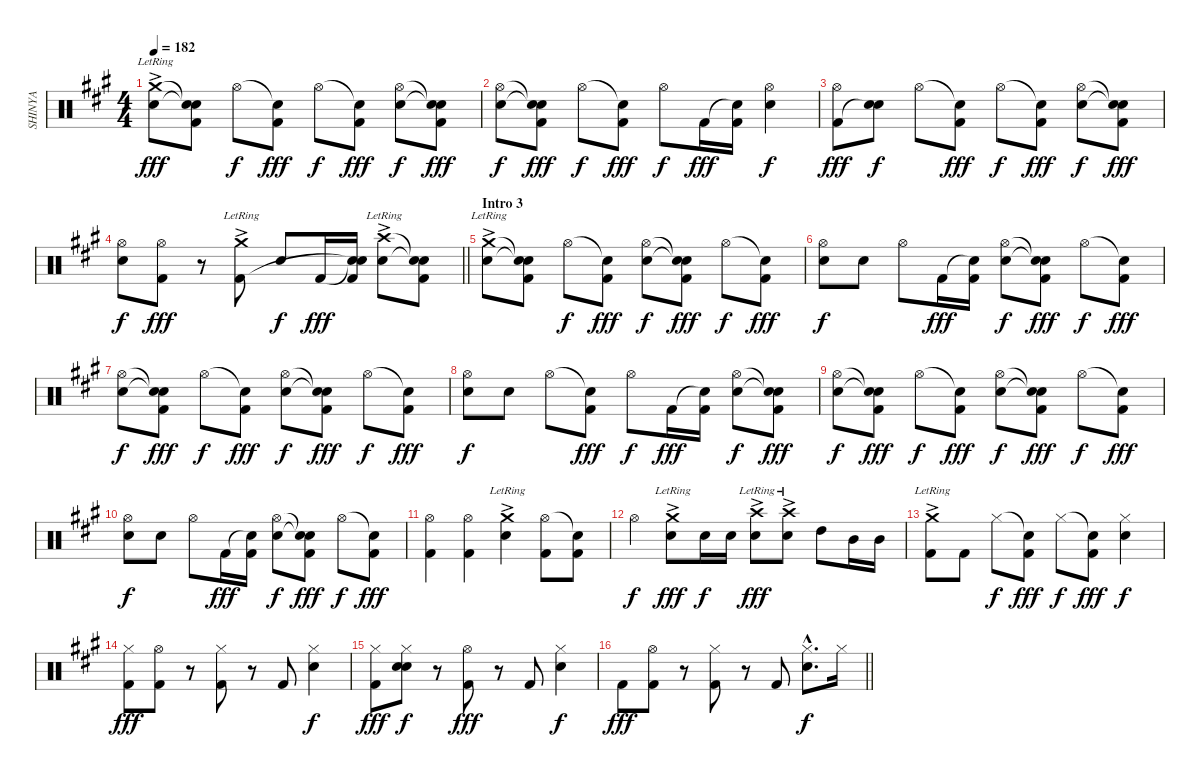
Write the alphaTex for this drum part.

\track ("SHINYA" "SHINYA") {instrument percussion}
\staff {score}
\articulation defaults
\ts (4 4)
\tempo 182
\clef neutral
\ks a
("Crash medium (hit)"{ac lr} "Electric Snare (hit)").8{dy fff} ("Snare (hit)"{t} "Snare (hit)"{t} "Kick (hit) 2").8 "Hi-Hat (open)".8{dy f} ("Snare (hit)"{t} "Kick (hit) 2").8{dy fff} "Hi-Hat (open)".8{dy f} ("Snare (hit)"{t} "Kick (hit) 2").8{dy fff} ("Hi-Hat (open)" "Electric Snare (hit)").8{dy f} ("Snare (hit)"{t} "Snare (hit)"{t} "Kick (hit) 2").8{dy fff} |
("Hi-Hat (open)" "Electric Snare (hit)").8{dy f} ("Snare (hit)"{t} "Snare (hit)"{t} "Kick (hit) 2").8{dy fff} "Hi-Hat (open)".8{dy f} ("Snare (hit)"{t} "Kick (hit) 2").8{dy fff} "Hi-Hat (open)".8{dy f} "Kick (hit) 2".16{dy fff} ("Snare (hit)"{t} "Kick (hit) 2").16 ("Hi-Hat (open)" "Electric Snare (hit)").4{dy f} |
("Hi-Hat (open)" "Kick (hit) 2").8{dy fff} ("Electric Snare (hit)" "Snare (hit)"{t}).8{dy f} "Hi-Hat (open)".8 ("Snare (hit)"{t} "Kick (hit) 2").8{dy fff} "Hi-Hat (open)".8{dy f} ("Snare (hit)"{t} "Kick (hit) 2").8{dy fff} ("Hi-Hat (open)" "Electric Snare (hit)").8{dy f} ("Snare (hit)"{t} "Snare (hit)"{t} "Kick (hit) 2").8{dy fff} |
\barLineRight lightlight
("Hi-Hat (open)" "Electric Snare (hit)").8{dy f} ("Hi-Hat (open)" "Kick (hit) 2").8{dy fff} r.8 ("Crash medium (hit)"{ac lr} "Kick (hit) 2").8 "Electric Snare (hit)".8{dy f} "Kick (hit) 2".16{dy fff} ("Snare (hit)"{t} "Snare (hit)"{t} "Kick (hit) 2").16 ("Crash high (hit)"{ac lr} "Electric Snare (hit)").8 ("Snare (hit)"{t} "Snare (hit)"{t} "Kick (hit) 2").8 |
\section ("" "Intro 3")
("Crash medium (hit)"{ac lr} "Electric Snare (hit)").8 ("Snare (hit)"{t} "Snare (hit)"{t} "Kick (hit) 2").8 "Hi-Hat (open)".8{dy f} ("Snare (hit)"{t} "Kick (hit) 2").8{dy fff} ("Hi-Hat (open)" "Electric Snare (hit)").8{dy f} ("Snare (hit)"{t} "Snare (hit)"{t} "Kick (hit) 2").8{dy fff} "Hi-Hat (open)".8{dy f} ("Snare (hit)"{t} "Kick (hit) 2").8{dy fff} |
("Hi-Hat (open)" "Electric Snare (hit)").8{dy f} "Electric Snare (hit)".8 "Hi-Hat (open)".8 "Kick (hit) 2".16{dy fff} ("Snare (hit)"{t} "Kick (hit) 2").16 ("Hi-Hat (open)" "Electric Snare (hit)").8{dy f} ("Snare (hit)"{t} "Snare (hit)"{t} "Kick (hit) 2").8{dy fff} "Hi-Hat (open)".8{dy f} ("Snare (hit)"{t} "Kick (hit) 2").8{dy fff} |
("Hi-Hat (open)" "Electric Snare (hit)").8{dy f} ("Snare (hit)"{t} "Snare (hit)"{t} "Kick (hit) 2").8{dy fff} "Hi-Hat (open)".8{dy f} ("Snare (hit)"{t} "Kick (hit) 2").8{dy fff} ("Hi-Hat (open)" "Electric Snare (hit)").8{dy f} ("Snare (hit)"{t} "Snare (hit)"{t} "Kick (hit) 2").8{dy fff} "Hi-Hat (open)".8{dy f} ("Snare (hit)"{t} "Kick (hit) 2").8{dy fff} |
("Hi-Hat (open)" "Electric Snare (hit)").8{dy f} "Electric Snare (hit)".8 "Hi-Hat (open)".8 ("Snare (hit)"{t} "Kick (hit) 2").8{dy fff} "Hi-Hat (open)".8{dy f} "Kick (hit) 2".16{dy fff} ("Snare (hit)"{t} "Kick (hit) 2").16 ("Hi-Hat (open)" "Electric Snare (hit)").8{dy f} ("Snare (hit)"{t} "Snare (hit)"{t} "Kick (hit) 2").8{dy fff} |
("Hi-Hat (open)" "Electric Snare (hit)").8{dy f} ("Snare (hit)"{t} "Snare (hit)"{t} "Kick (hit) 2").8{dy fff} "Hi-Hat (open)".8{dy f} ("Snare (hit)"{t} "Kick (hit) 2").8{dy fff} ("Hi-Hat (open)" "Electric Snare (hit)").8{dy f} ("Snare (hit)"{t} "Snare (hit)"{t} "Kick (hit) 2").8{dy fff} "Hi-Hat (open)".8{dy f} ("Snare (hit)"{t} "Kick (hit) 2").8{dy fff} |
("Hi-Hat (open)" "Electric Snare (hit)").8{dy f} "Electric Snare (hit)".8 "Hi-Hat (open)".8 "Kick (hit) 2".16{dy fff} ("Snare (hit)"{t} "Kick (hit) 2").16 ("Hi-Hat (open)" "Electric Snare (hit)").8{dy f} ("Snare (hit)"{t} "Snare (hit)"{t} "Kick (hit) 2").8{dy fff} "Hi-Hat (open)".8{dy f} ("Snare (hit)"{t} "Kick (hit) 2").8{dy fff} |
("Hi-Hat (open)" "Kick (hit) 2").4 ("Hi-Hat (open)" "Kick (hit) 2").4 ("Crash medium (hit)"{ac lr} "Electric Snare (hit)").4 ("Hi-Hat (open)" "Kick (hit) 2").8 ("Snare (hit)"{t} "Kick (hit) 2").8 |
"Hi-Hat (open)".4{dy f} ("Crash medium (hit)"{ac lr} "Electric Snare (hit)").8{dy fff} "Electric Snare (hit)".16{dy f} "Electric Snare (hit)".16 ("Crash high (hit)"{ac lr} "Electric Snare (hit)").8{dy fff} ("Crash high (hit)"{ac lr} "Electric Snare (hit)").8 "High Tom (hit)".8 "Mid Tom (hit)".16 "Mid Tom (hit)".16 |
("Crash medium (hit)"{ac lr} "Kick (hit) 2").8 "Kick (hit) 2".8 "Hi-Hat (closed)".8{dy f} ("Snare (hit)"{t} "Kick (hit) 2").8{dy fff} "Hi-Hat (closed)".8{dy f} ("Snare (hit)"{t} "Kick (hit) 2").8{dy fff} ("Hi-Hat (closed)" "Electric Snare (hit)").4{dy f} |
("Hi-Hat (closed)" "Kick (hit) 2").8{dy fff} ("Hi-Hat (open)" "Kick (hit) 2").8 r.8 ("Hi-Hat (closed)" "Kick (hit) 2").8 r.8 "Kick (hit) 2".8 ("Hi-Hat (closed)" "Electric Snare (hit)").4{dy f} |
("Hi-Hat (closed)" "Kick (hit) 2").8{dy fff} ("Hi-Hat (closed)" "Electric Snare (hit)" "Snare (hit)").8{dy f} r.8 ("Hi-Hat (open)" "Kick (hit) 2").8{dy fff} r.8 "Kick (hit) 2".8 ("Hi-Hat (closed)" "Electric Snare (hit)").4{dy f} |
\barLineRight lightlight "Kick (hit) 2".8{dy fff}
("Hi-Hat (open)" "Kick (hit) 2").8 r.8 ("Hi-Hat (closed)" "Kick (hit) 2").8 r.8 "Kick (hit) 2".8 ("Hi-Hat (closed)"{hac} "Electric Snare (hit)"{hac}).8{d dy f} "Hi-Hat (closed)".16
